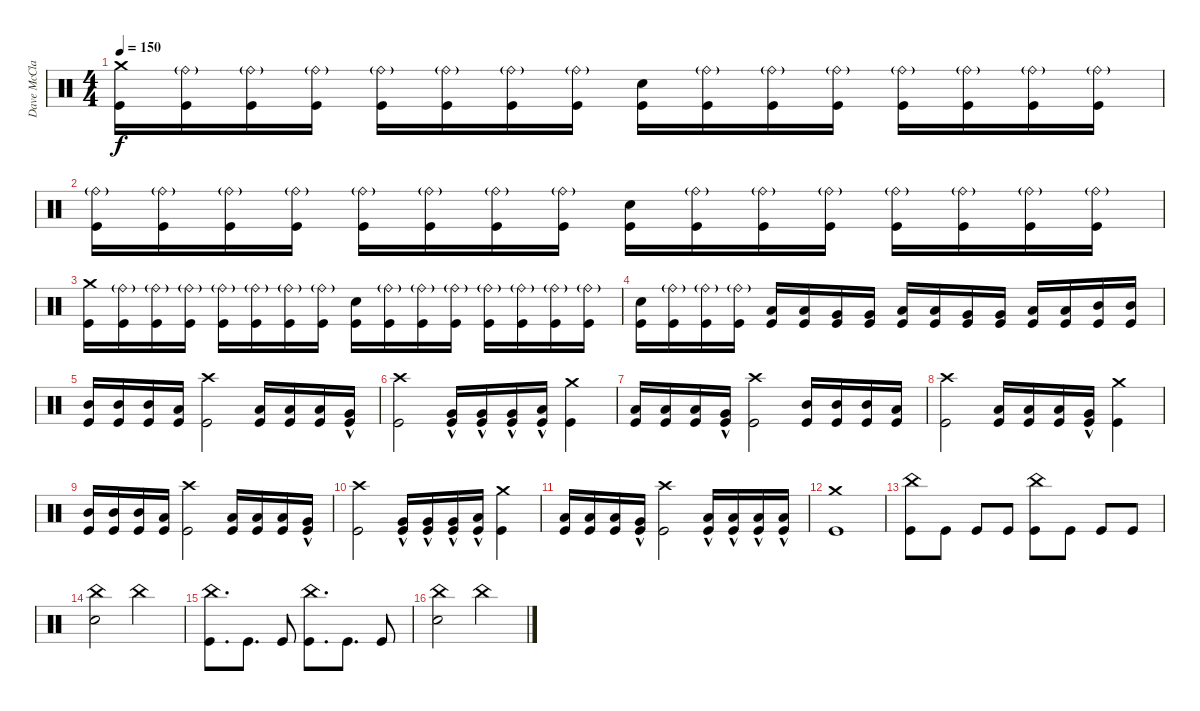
\track ("Dave McClaine" "Dave McCla") {instrument percussion}
\staff {score}
\articulation defaults
\ts (4 4)
\tempo 150
\clef neutral
\ks c
("Kick (hit)" "Crash medium (hit)").16{dy f} ("Kick (hit)" "Ride (bell)"{g}).16 ("Kick (hit)" "Ride (bell)"{g}).16 ("Kick (hit)" "Ride (bell)"{g}).16 ("Kick (hit)" "Ride (bell)"{g}).16 ("Kick (hit)" "Ride (bell)"{g}).16 ("Kick (hit)" "Ride (bell)"{g}).16 ("Kick (hit)" "Ride (bell)"{g}).16 ("Kick (hit)" "Snare (hit) 2").16 ("Kick (hit)" "Ride (bell)"{g}).16 ("Kick (hit)" "Ride (bell)"{g}).16 ("Kick (hit)" "Ride (bell)"{g}).16 ("Kick (hit)" "Ride (bell)"{g}).16 ("Kick (hit)" "Ride (bell)"{g}).16 ("Kick (hit)" "Ride (bell)"{g}).16 ("Kick (hit)" "Ride (bell)"{g}).16 |
("Ride (bell)"{g} "Kick (hit)").16 ("Kick (hit)" "Ride (bell)"{g}).16 ("Kick (hit)" "Ride (bell)"{g}).16 ("Kick (hit)" "Ride (bell)"{g}).16 ("Kick (hit)" "Ride (bell)"{g}).16 ("Kick (hit)" "Ride (bell)"{g}).16 ("Kick (hit)" "Ride (bell)"{g}).16 ("Kick (hit)" "Ride (bell)"{g}).16 ("Kick (hit)" "Snare (hit) 2").16 ("Kick (hit)" "Ride (bell)"{g}).16 ("Kick (hit)" "Ride (bell)"{g}).16 ("Kick (hit)" "Ride (bell)"{g}).16 ("Ride (bell)"{g} "Kick (hit)").16 ("Kick (hit)" "Ride (bell)"{g}).16 ("Kick (hit)" "Ride (bell)"{g}).16 ("Kick (hit)" "Ride (bell)"{g}).16 |
("Kick (hit)" "Crash medium (hit)").16 ("Kick (hit)" "Ride (bell)"{g}).16 ("Kick (hit)" "Ride (bell)"{g}).16 ("Kick (hit)" "Ride (bell)"{g}).16 ("Kick (hit)" "Ride (bell)"{g}).16 ("Kick (hit)" "Ride (bell)"{g}).16 ("Kick (hit)" "Ride (bell)"{g}).16 ("Kick (hit)" "Ride (bell)"{g}).16 ("Kick (hit)" "Snare (hit) 2").16 ("Kick (hit)" "Ride (bell)"{g}).16 ("Kick (hit)" "Ride (bell)"{g}).16 ("Kick (hit)" "Ride (bell)"{g}).16 ("Kick (hit)" "Ride (bell)"{g}).16 ("Kick (hit)" "Ride (bell)"{g}).16 ("Kick (hit)" "Ride (bell)"{g}).16 ("Kick (hit)" "Ride (bell)"{g}).16 |
("Kick (hit)" "Snare (hit) 2").16 ("Kick (hit)" "Ride (bell)"{g}).16 ("Kick (hit)" "Ride (bell)"{g}).16 ("Kick (hit)" "Ride (bell)"{g}).16 ("Low Tom (hit)" "Kick (hit)").16 ("Low Tom (hit)" "Kick (hit)").16 ("Very Low Tom (hit)" "Kick (hit)").16 ("Very Low Tom (hit)" "Kick (hit)").16 ("Low Tom (hit)" "Kick (hit)").16 ("Low Tom (hit)" "Kick (hit)").16 ("Very Low Tom (hit)" "Kick (hit)").16 ("Very Low Tom (hit)" "Kick (hit)").16 ("Low Tom (hit)" "Kick (hit)").16 ("Low Tom (hit)" "Kick (hit)").16 ("Mid Tom (hit)" "Kick (hit)").16 ("Mid Tom (hit)" "Kick (hit)").16 |
("Kick (hit)" "Mid Tom (hit)").16 ("Kick (hit)" "Mid Tom (hit)").16 ("Kick (hit)" "Mid Tom (hit)").16 ("Kick (hit)" "Low Tom (hit)").16 ("Kick (hit)" "Crash high (hit)").2 ("Kick (hit)" "Low Tom (hit)").16 ("Kick (hit)" "Low Tom (hit)").16 ("Kick (hit)" "Low Tom (hit)").16 ("Kick (hit)" "Very Low Tom (hit)"{hac}).16 |
("Kick (hit)" "Crash high (hit)").2 ("Kick (hit)" "Very Low Tom (hit)"{hac}).16 ("Kick (hit)" "Very Low Tom (hit)"{hac}).16 ("Kick (hit)" "Very Low Tom (hit)"{hac}).16 ("Kick (hit)" "Low Floor Tom (hit)"{hac}).16 ("Kick (hit)" "Crash medium (hit)").4 |
("Kick (hit)" "Low Tom (hit)").16 ("Kick (hit)" "Low Tom (hit)").16 ("Kick (hit)" "Low Tom (hit)").16 ("Kick (hit)" "Very Low Tom (hit)"{hac}).16 ("Kick (hit)" "Crash high (hit)").2 ("Kick (hit)" "Mid Tom (hit)").16 ("Kick (hit)" "Mid Tom (hit)").16 ("Kick (hit)" "Mid Tom (hit)").16 ("Kick (hit)" "Low Tom (hit)").16 |
("Kick (hit)" "Crash high (hit)").2 ("Kick (hit)" "Low Tom (hit)").16 ("Kick (hit)" "Low Tom (hit)").16 ("Kick (hit)" "Low Tom (hit)").16 ("Kick (hit)" "Very Low Tom (hit)"{hac}).16 ("Kick (hit)" "Crash medium (hit)").4 |
("Kick (hit)" "Mid Tom (hit)").16 ("Kick (hit)" "Mid Tom (hit)").16 ("Kick (hit)" "Mid Tom (hit)").16 ("Kick (hit)" "Low Tom (hit)").16 ("Kick (hit)" "Crash high (hit)").2 ("Kick (hit)" "Low Tom (hit)").16 ("Kick (hit)" "Low Tom (hit)").16 ("Kick (hit)" "Low Tom (hit)").16 ("Kick (hit)" "Very Low Tom (hit)"{hac}).16 |
("Kick (hit)" "Crash high (hit)").2 ("Kick (hit)" "Very Low Tom (hit)"{hac}).16 ("Kick (hit)" "Very Low Tom (hit)"{hac}).16 ("Kick (hit)" "Very Low Tom (hit)"{hac}).16 ("Kick (hit)" "Low Floor Tom (hit)"{hac}).16 ("Kick (hit)" "Crash medium (hit)").4 |
("Kick (hit)" "Low Tom (hit)").16 ("Kick (hit)" "Low Tom (hit)").16 ("Kick (hit)" "Low Tom (hit)").16 ("Kick (hit)" "Very Low Tom (hit)"{hac}).16 ("Kick (hit)" "Crash high (hit)").2 ("Kick (hit)" "Low Floor Tom (hit)"{hac}).16 ("Kick (hit)" "Low Floor Tom (hit)"{hac}).16 ("Kick (hit)" "Low Floor Tom (hit)"{hac}).16 ("Kick (hit)" "Low Floor Tom (hit)"{hac}).16 |
("Kick (hit)" "Crash medium (hit)").1 |
("Kick (hit)" "China (hit)").8 "Kick (hit)".8 "Kick (hit)".8 "Kick (hit)".8 ("Kick (hit)" "China (hit)").8 "Kick (hit)".8 "Kick (hit)".8 "Kick (hit)".8 |
("Snare (hit) 2" "China (hit)").2 "China (hit)".2 |
("Kick (hit)" "China (hit)").8{d} "Kick (hit)".8{d} "Kick (hit)".8 ("Kick (hit)" "China (hit)").8{d} "Kick (hit)".8{d} "Kick (hit)".8 |
("Snare (hit) 2" "China (hit)").2 "China (hit)".2
